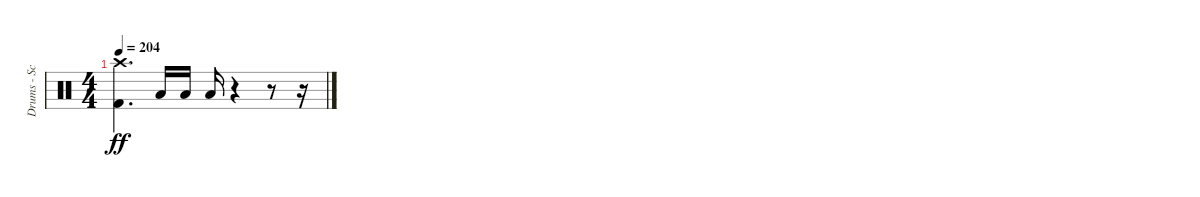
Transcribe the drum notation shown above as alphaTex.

\track ("Drums - Scott" "Drums - Sc") {instrument percussion}
\staff {score}
\articulation defaults
\ts (4 4)
\tempo 204
\clef neutral
\ks c
("Kick (hit) 2" "Crash high (hit)").4{d dy ff} "Low Tom (hit)".16 "Low Tom (hit)".16 "Low Tom (hit)".16 r.4 r.8 r.16
